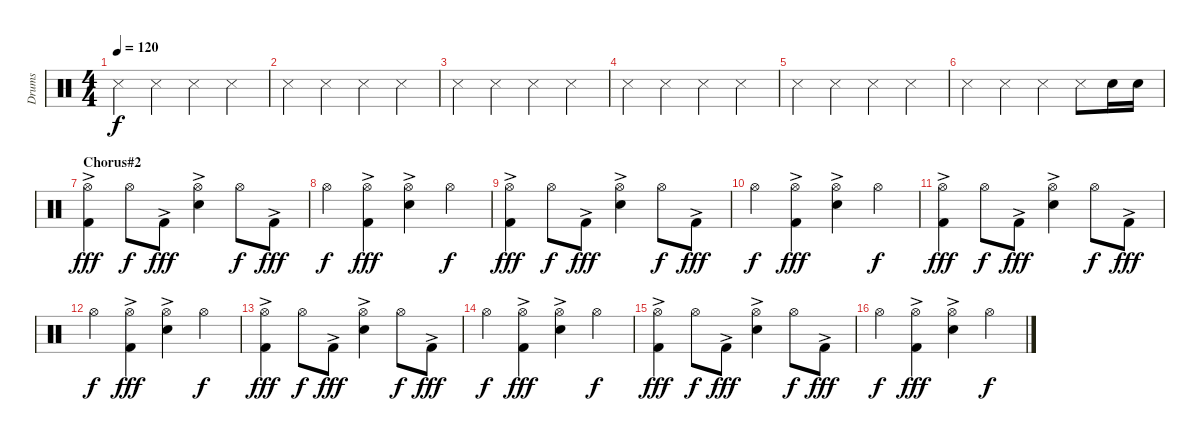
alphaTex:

\track ("Drums" "Drums") {instrument percussion}
\staff {score}
\articulation defaults
\ts (4 4)
\tempo 120
\clef neutral
\ks c "Metronome (hit)".4{dy f} "Metronome (hit)".4 "Metronome (hit)".4 "Metronome (hit)".4
|
"Metronome (hit)".4 "Metronome (hit)".4 "Metronome (hit)".4 "Metronome (hit)".4 |
"Metronome (hit)".4 "Metronome (hit)".4 "Metronome (hit)".4 "Metronome (hit)".4 |
"Metronome (hit)".4 "Metronome (hit)".4 "Metronome (hit)".4 "Metronome (hit)".4 |
"Metronome (hit)".4 "Metronome (hit)".4 "Metronome (hit)".4 "Metronome (hit)".4 |
"Metronome (hit)".4 "Metronome (hit)".4 "Metronome (hit)".4 "Metronome (hit)".8 "Electric Snare (hit)".16 "Electric Snare (hit)".16 |
\section ("" "Chorus#2")
("Hi-Hat (open)" "Kick (hit) 2"{ac}).4{dy fff} "Hi-Hat (open)".8{dy f} "Kick (hit) 2"{ac}.8{dy fff} ("Hi-Hat (open)" "Electric Snare (hit)"{ac}).4 "Hi-Hat (open)".8{dy f} "Kick (hit) 2"{ac}.8{dy fff} |
"Hi-Hat (open)".4{dy f} ("Hi-Hat (open)" "Kick (hit) 2"{ac}).4{dy fff} ("Hi-Hat (open)" "Electric Snare (hit)"{ac}).4 "Hi-Hat (open)".4{dy f} |
("Hi-Hat (open)" "Kick (hit) 2"{ac}).4{dy fff} "Hi-Hat (open)".8{dy f} "Kick (hit) 2"{ac}.8{dy fff} ("Hi-Hat (open)" "Electric Snare (hit)"{ac}).4 "Hi-Hat (open)".8{dy f} "Kick (hit) 2"{ac}.8{dy fff} |
"Hi-Hat (open)".4{dy f} ("Hi-Hat (open)" "Kick (hit) 2"{ac}).4{dy fff} ("Hi-Hat (open)" "Electric Snare (hit)"{ac}).4 "Hi-Hat (open)".4{dy f} |
("Hi-Hat (open)" "Kick (hit) 2"{ac}).4{dy fff} "Hi-Hat (open)".8{dy f} "Kick (hit) 2"{ac}.8{dy fff} ("Hi-Hat (open)" "Electric Snare (hit)"{ac}).4 "Hi-Hat (open)".8{dy f} "Kick (hit) 2"{ac}.8{dy fff} |
"Hi-Hat (open)".4{dy f} ("Hi-Hat (open)" "Kick (hit) 2"{ac}).4{dy fff} ("Hi-Hat (open)" "Electric Snare (hit)"{ac}).4 "Hi-Hat (open)".4{dy f} |
("Hi-Hat (open)" "Kick (hit) 2"{ac}).4{dy fff} "Hi-Hat (open)".8{dy f} "Kick (hit) 2"{ac}.8{dy fff} ("Hi-Hat (open)" "Electric Snare (hit)"{ac}).4 "Hi-Hat (open)".8{dy f} "Kick (hit) 2"{ac}.8{dy fff} |
"Hi-Hat (open)".4{dy f} ("Hi-Hat (open)" "Kick (hit) 2"{ac}).4{dy fff} ("Hi-Hat (open)" "Electric Snare (hit)"{ac}).4 "Hi-Hat (open)".4{dy f} |
("Hi-Hat (open)" "Kick (hit) 2"{ac}).4{dy fff} "Hi-Hat (open)".8{dy f} "Kick (hit) 2"{ac}.8{dy fff} ("Hi-Hat (open)" "Electric Snare (hit)"{ac}).4 "Hi-Hat (open)".8{dy f} "Kick (hit) 2"{ac}.8{dy fff} |
"Hi-Hat (open)".4{dy f} ("Hi-Hat (open)" "Kick (hit) 2"{ac}).4{dy fff} ("Hi-Hat (open)" "Electric Snare (hit)"{ac}).4 "Hi-Hat (open)".4{dy f}
